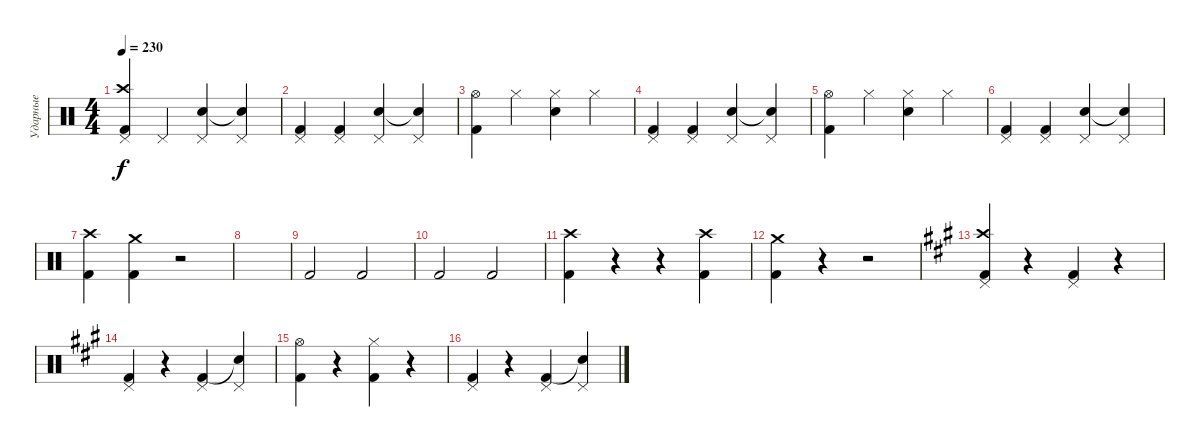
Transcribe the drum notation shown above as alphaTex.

\track ("Ударные" "Ударные") {instrument percussion}
\staff {score}
\articulation defaults
\ts (4 4)
\tempo 230
\clef neutral
\ks c
("Pedal Hi-Hat (hit)" "Crash high (hit)" "Kick (hit) 2").4{dy f} "Pedal Hi-Hat (hit)".4 ("Pedal Hi-Hat (hit)" "Electric Snare (hit)").4 ("Pedal Hi-Hat (hit)" "Electric Snare (hit)"{t}).4 |
("Pedal Hi-Hat (hit)" "Kick (hit) 2").4 ("Pedal Hi-Hat (hit)" "Kick (hit) 2").4 ("Pedal Hi-Hat (hit)" "Electric Snare (hit)").4 ("Pedal Hi-Hat (hit)" "Electric Snare (hit)"{t}).4 |
("Hi-Hat (open)" "Kick (hit) 2").4 "Hi-Hat (closed)".4 ("Hi-Hat (closed)" "Electric Snare (hit)").4 "Hi-Hat (closed)".4 |
("Pedal Hi-Hat (hit)" "Kick (hit) 2").4 ("Pedal Hi-Hat (hit)" "Kick (hit) 2").4 ("Pedal Hi-Hat (hit)" "Electric Snare (hit)").4 ("Pedal Hi-Hat (hit)" "Electric Snare (hit)"{t}).4 |
("Hi-Hat (open)" "Kick (hit) 2").4 "Hi-Hat (closed)".4 ("Hi-Hat (closed)" "Electric Snare (hit)").4 "Hi-Hat (closed)".4 |
("Pedal Hi-Hat (hit)" "Kick (hit) 2").4 ("Pedal Hi-Hat (hit)" "Kick (hit) 2").4 ("Pedal Hi-Hat (hit)" "Electric Snare (hit)").4 ("Pedal Hi-Hat (hit)" "Electric Snare (hit)"{t}).4 |
("Crash high (hit)" "Kick (hit) 2").4 ("Crash medium (hit)" "Kick (hit) 2").4 r.2 |
|
"Kick (hit) 2".2 "Kick (hit) 2".2 |
"Kick (hit) 2".2 "Kick (hit) 2".2 |
("Crash high (hit)" "Kick (hit) 2").4 r.4 r.4 ("Crash high (hit)" "Kick (hit) 2").4 |
("Crash medium (hit)" "Kick (hit) 2").4 r.4 r.2 |
\ks a
("Pedal Hi-Hat (hit)" "Crash high (hit)" "Kick (hit) 2").4 r.4 ("Pedal Hi-Hat (hit)" "Kick (hit) 2").4 r.4 |
("Pedal Hi-Hat (hit)" "Kick (hit) 2").4 r.4 ("Pedal Hi-Hat (hit)" "Kick (hit) 2").4 ("Pedal Hi-Hat (hit)" "Electric Snare (hit)"{t}).4 |
("Hi-Hat (open)" "Kick (hit) 2").4 r.4 ("Hi-Hat (closed)" "Kick (hit) 2").4 r.4 |
("Pedal Hi-Hat (hit)" "Kick (hit) 2").4 r.4 ("Pedal Hi-Hat (hit)" "Kick (hit) 2").4 ("Pedal Hi-Hat (hit)" "Electric Snare (hit)"{t}).4
